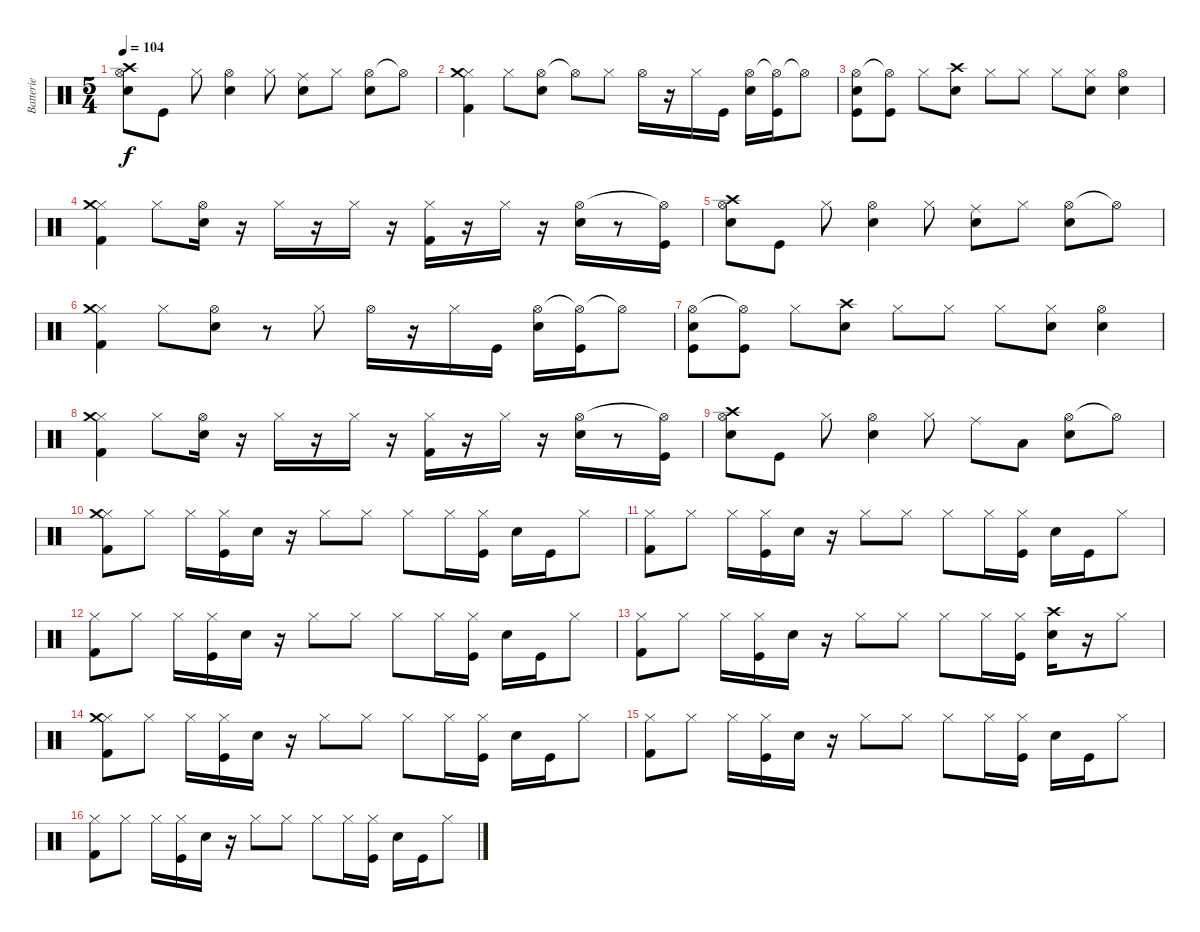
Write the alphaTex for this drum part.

\track ("Batterie" "Batterie") {instrument percussion}
\staff {score}
\articulation defaults
\ts (5 4)
\tempo 104
\clef neutral
\ks c
("Hi-Hat (open)" "Crash high (hit)" "Electric Snare (hit)").8{dy f} "Kick (hit)".8 "Hi-Hat (closed)".8 ("Hi-Hat (open)" "Electric Snare (hit)").4 "Hi-Hat (closed)".8 ("Ride (middle)" "Electric Snare (hit)").8 "Hi-Hat (closed)".8 ("Hi-Hat (open)" "Electric Snare (hit)").8 "Hi-Hat (open)"{t}.8 |
("Hi-Hat (closed)" "Crash medium (hit)" "Kick (hit) 2").4 "Hi-Hat (closed)".8 ("Hi-Hat (open)" "Electric Snare (hit)").8 "Hi-Hat (open)"{t}.8 "Hi-Hat (closed)".8 "Hi-Hat (open)".16 r.16 "Hi-Hat (closed)".16 "Kick (hit)".16 ("Hi-Hat (open)" "Electric Snare (hit)").16 ("Hi-Hat (open)"{t} "Kick (hit)").16 "Hi-Hat (open)"{t}.8 |
("Hi-Hat (open)" "Electric Snare (hit)" "Kick (hit)").8 ("Hi-Hat (open)"{t} "Kick (hit)").8 "Hi-Hat (closed)".8 ("Crash high (hit)" "Electric Snare (hit)").8 "Hi-Hat (closed)".8 "Hi-Hat (closed)".8 "Hi-Hat (closed)".8 ("Hi-Hat (closed)" "Electric Snare (hit)").8 ("Hi-Hat (open)" "Electric Snare (hit)").4 |
("Hi-Hat (closed)" "Crash medium (hit)" "Kick (hit) 2").4 "Hi-Hat (closed)".8 ("Hi-Hat (open)" "Electric Snare (hit)").16 r.16 "Hi-Hat (closed)".16 r.16 "Hi-Hat (closed)".16 r.16 ("Hi-Hat (closed)" "Kick (hit) 2").16 r.16 "Hi-Hat (closed)".16 r.16 ("Hi-Hat (open)" "Electric Snare (hit)").16 r.8 ("Hi-Hat (open)"{t} "Kick (hit)").16 |
("Hi-Hat (open)" "Crash high (hit)" "Electric Snare (hit)").8 "Kick (hit)".8 "Hi-Hat (closed)".8 ("Hi-Hat (open)" "Electric Snare (hit)").4 "Hi-Hat (closed)".8 ("Ride (middle)" "Electric Snare (hit)").8 "Hi-Hat (closed)".8 ("Hi-Hat (open)" "Electric Snare (hit)").8 "Hi-Hat (open)"{t}.8 |
("Hi-Hat (closed)" "Crash medium (hit)" "Kick (hit) 2").4 "Hi-Hat (closed)".8 ("Hi-Hat (open)" "Electric Snare (hit)").8 r.8 "Hi-Hat (closed)".8 "Hi-Hat (open)".16 r.16 "Hi-Hat (closed)".16 "Kick (hit)".16 ("Hi-Hat (open)" "Electric Snare (hit)").16 ("Hi-Hat (open)"{t} "Kick (hit)").16 "Hi-Hat (open)"{t}.8 |
("Hi-Hat (open)" "Electric Snare (hit)" "Kick (hit)").8 ("Hi-Hat (open)"{t} "Kick (hit)").8 "Hi-Hat (closed)".8 ("Crash high (hit)" "Electric Snare (hit)").8 "Hi-Hat (closed)".8 "Hi-Hat (closed)".8 "Hi-Hat (closed)".8 ("Hi-Hat (closed)" "Electric Snare (hit)").8 ("Hi-Hat (open)" "Electric Snare (hit)").4 |
("Hi-Hat (closed)" "Crash medium (hit)" "Kick (hit) 2").4 "Hi-Hat (closed)".8 ("Hi-Hat (open)" "Electric Snare (hit)").16 r.16 "Hi-Hat (closed)".16 r.16 "Hi-Hat (closed)".16 r.16 ("Hi-Hat (closed)" "Kick (hit) 2").16 r.16 "Hi-Hat (closed)".16 r.16 ("Hi-Hat (open)" "Electric Snare (hit)").16 r.8 ("Hi-Hat (open)"{t} "Kick (hit)").16 |
("Hi-Hat (open)" "Crash high (hit)" "Electric Snare (hit)").8 "Kick (hit)".8 "Hi-Hat (closed)".8 ("Hi-Hat (open)" "Electric Snare (hit)").4 "Hi-Hat (closed)".8 "Ride (middle)".8 "Low Tom (hit)".8 ("Hi-Hat (open)" "Electric Snare (hit)").8 "Hi-Hat (open)"{t}.8 |
("Hi-Hat (closed)" "Crash medium (hit)" "Kick (hit) 2").8 "Hi-Hat (closed)".8 "Hi-Hat (closed)".16 ("Hi-Hat (closed)" "Kick (hit)").16 "Electric Snare (hit)".16 r.16 "Hi-Hat (closed)".8 "Hi-Hat (closed)".8 "Hi-Hat (closed)".8 "Hi-Hat (closed)".16 ("Hi-Hat (closed)" "Kick (hit)").16 "Electric Snare (hit)".16 "Kick (hit)".16 "Hi-Hat (closed)".8 |
("Hi-Hat (closed)" "Kick (hit) 2").8 "Hi-Hat (closed)".8 "Hi-Hat (closed)".16 ("Hi-Hat (closed)" "Kick (hit)").16 "Electric Snare (hit)".16 r.16 "Hi-Hat (closed)".8 "Hi-Hat (closed)".8 "Hi-Hat (closed)".8 "Hi-Hat (closed)".16 ("Hi-Hat (closed)" "Kick (hit)").16 "Electric Snare (hit)".16 "Kick (hit)".16 "Hi-Hat (closed)".8 |
("Hi-Hat (closed)" "Kick (hit) 2").8 "Hi-Hat (closed)".8 "Hi-Hat (closed)".16 ("Hi-Hat (closed)" "Kick (hit)").16 "Electric Snare (hit)".16 r.16 "Hi-Hat (closed)".8 "Hi-Hat (closed)".8 "Hi-Hat (closed)".8 "Hi-Hat (closed)".16 ("Hi-Hat (closed)" "Kick (hit)").16 "Electric Snare (hit)".16 "Kick (hit)".16 "Hi-Hat (closed)".8 |
("Hi-Hat (closed)" "Kick (hit) 2").8 "Hi-Hat (closed)".8 "Hi-Hat (closed)".16 ("Hi-Hat (closed)" "Kick (hit)").16 "Electric Snare (hit)".16 r.16 "Hi-Hat (closed)".8 "Hi-Hat (closed)".8 "Hi-Hat (closed)".8 "Hi-Hat (closed)".16 ("Hi-Hat (closed)" "Kick (hit)").16 ("Crash high (hit)" "Electric Snare (hit)").16 r.16 "Hi-Hat (closed)".8 |
("Hi-Hat (closed)" "Crash medium (hit)" "Kick (hit) 2").8 "Hi-Hat (closed)".8 "Hi-Hat (closed)".16 ("Hi-Hat (closed)" "Kick (hit)").16 "Electric Snare (hit)".16 r.16 "Hi-Hat (closed)".8 "Hi-Hat (closed)".8 "Hi-Hat (closed)".8 "Hi-Hat (closed)".16 ("Hi-Hat (closed)" "Kick (hit)").16 "Electric Snare (hit)".16 "Kick (hit)".16 "Hi-Hat (closed)".8 |
("Hi-Hat (closed)" "Kick (hit) 2").8 "Hi-Hat (closed)".8 "Hi-Hat (closed)".16 ("Hi-Hat (closed)" "Kick (hit)").16 "Electric Snare (hit)".16 r.16 "Hi-Hat (closed)".8 "Hi-Hat (closed)".8 "Hi-Hat (closed)".8 "Hi-Hat (closed)".16 ("Hi-Hat (closed)" "Kick (hit)").16 "Electric Snare (hit)".16 "Kick (hit)".16 "Hi-Hat (closed)".8 |
("Hi-Hat (closed)" "Kick (hit) 2").8 "Hi-Hat (closed)".8 "Hi-Hat (closed)".16 ("Hi-Hat (closed)" "Kick (hit)").16 "Electric Snare (hit)".16 r.16 "Hi-Hat (closed)".8 "Hi-Hat (closed)".8 "Hi-Hat (closed)".8 "Hi-Hat (closed)".16 ("Hi-Hat (closed)" "Kick (hit)").16 "Electric Snare (hit)".16 "Kick (hit)".16 "Hi-Hat (closed)".8
